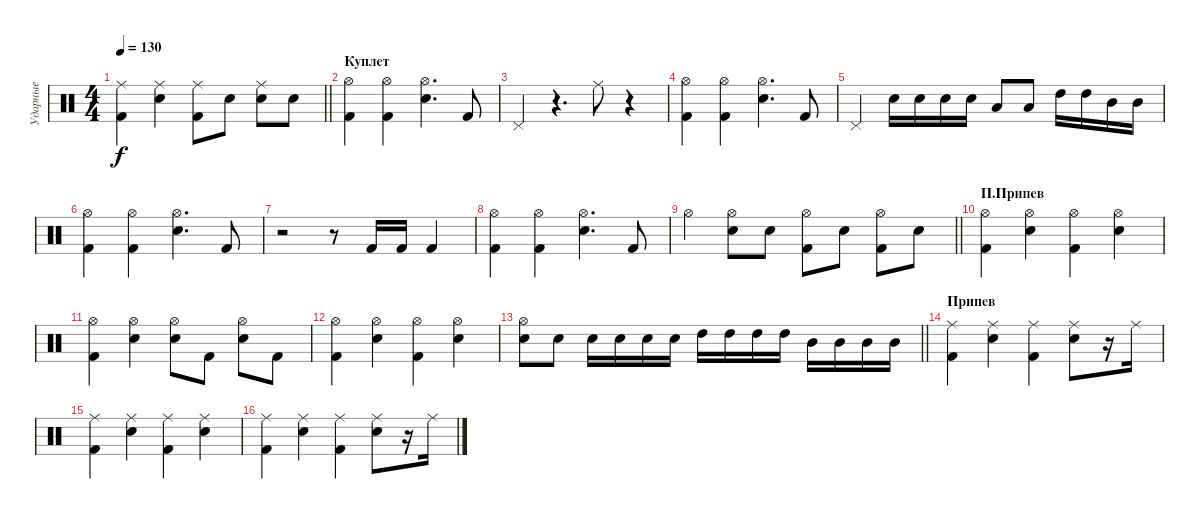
\track ("Ударные" "Ударные") {instrument percussion}
\staff {score}
\articulation defaults
\ts (4 4)
\tempo 130
\clef neutral
\barLineRight lightlight
\ks c
("Ride (middle)" "Kick (hit) 2").4{dy f} ("Ride (middle)" "Snare (hit) 2").4 ("Ride (middle)" "Kick (hit) 2").8 "Snare (hit) 2".8 ("Ride (middle)" "Snare (hit) 2").8 "Snare (hit) 2".8 |
\section ("" "Куплет")
("Hi-Hat (open)" "Kick (hit) 2").4 ("Hi-Hat (open)" "Kick (hit) 2").4 ("Hi-Hat (open)" "Snare (hit) 2").4{d} "Kick (hit) 2".8 |
"Pedal Hi-Hat (hit)".4 r.4{d} "Ride (middle)".8 r.4 |
("Hi-Hat (open)" "Kick (hit) 2").4 ("Hi-Hat (open)" "Kick (hit) 2").4 ("Hi-Hat (open)" "Snare (hit) 2").4{d} "Kick (hit) 2".8 |
"Pedal Hi-Hat (hit)".4 "Electric Snare (hit)".16 "Electric Snare (hit)".16 "Electric Snare (hit)".16 "Electric Snare (hit)".16 "Low Tom (hit)".8 "Low Tom (hit)".8 "High Tom (hit)".16 "High Tom (hit)".16 "Mid Tom (hit)".16 "Mid Tom (hit)".16 |
("Hi-Hat (open)" "Kick (hit) 2").4 ("Hi-Hat (open)" "Kick (hit) 2").4 ("Hi-Hat (open)" "Snare (hit) 2").4{d} "Kick (hit) 2".8 |
r.2 r.8 "Kick (hit) 2".16 "Kick (hit) 2".16 "Kick (hit) 2".4 |
("Hi-Hat (open)" "Kick (hit) 2").4 ("Hi-Hat (open)" "Kick (hit) 2").4 ("Hi-Hat (open)" "Snare (hit) 2").4{d} "Kick (hit) 2".8 |
\barLineRight lightlight "Hi-Hat (open)".4
("Electric Snare (hit)" "Hi-Hat (open)").8 "Electric Snare (hit)".8 ("Kick (hit) 2" "Hi-Hat (open)").8 "Snare (hit) 2".8 ("Kick (hit) 2" "Hi-Hat (open)").8 "Snare (hit) 2".8 |
\section ("" "П.Припев")
("Hi-Hat (open)" "Kick (hit) 2").4 ("Hi-Hat (open)" "Snare (hit) 2").4 ("Hi-Hat (open)" "Kick (hit) 2").4 ("Hi-Hat (open)" "Snare (hit) 2").4 |
("Hi-Hat (open)" "Kick (hit) 2").4 ("Hi-Hat (open)" "Snare (hit) 2").4 ("Hi-Hat (open)" "Snare (hit) 2").8 "Kick (hit) 2".8 ("Hi-Hat (open)" "Snare (hit) 2").8 "Kick (hit) 2".8 |
("Hi-Hat (open)" "Kick (hit) 2").4 ("Hi-Hat (open)" "Snare (hit) 2").4 ("Hi-Hat (open)" "Kick (hit) 2").4 ("Hi-Hat (open)" "Snare (hit) 2").4 |
\barLineRight lightlight
("Hi-Hat (open)" "Snare (hit) 2").8 "Snare (hit) 2".8 "Snare (hit) 2".16 "Snare (hit) 2".16 "Snare (hit) 2".16 "Snare (hit) 2".16 "High Tom (hit)".16 "High Tom (hit)".16 "High Tom (hit)".16 "High Tom (hit)".16 "Mid Tom (hit)".16 "Mid Tom (hit)".16 "Mid Tom (hit)".16 "Mid Tom (hit)".16 |
\section ("" "Припев")
("Ride (middle)" "Kick (hit) 2").4 ("Ride (middle)" "Snare (hit) 2").4 ("Ride (middle)" "Kick (hit) 2").4 ("Ride (middle)" "Snare (hit) 2").8 r.16 "Ride (middle)".16 |
("Ride (middle)" "Kick (hit) 2").4 ("Ride (middle)" "Snare (hit) 2").4 ("Ride (middle)" "Kick (hit) 2").4 ("Ride (middle)" "Snare (hit) 2").4 |
("Ride (middle)" "Kick (hit) 2").4 ("Ride (middle)" "Snare (hit) 2").4 ("Ride (middle)" "Kick (hit) 2").4 ("Ride (middle)" "Snare (hit) 2").8 r.16 "Ride (middle)".16
